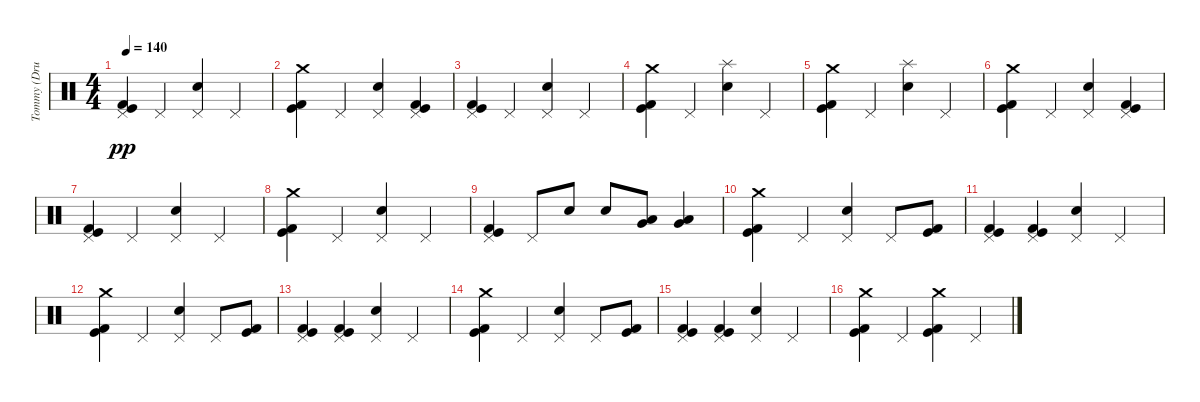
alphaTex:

\track ("Tommy (Drums)" "Tommy (Dru") {instrument percussion}
\staff {score}
\articulation defaults
\ts (4 4)
\tempo 140
\clef neutral
\ks c
("Pedal Hi-Hat (hit)" "Kick (hit) 2" "Kick (hit)").4{dy pp} "Pedal Hi-Hat (hit)".4 ("Pedal Hi-Hat (hit)" "Snare (hit) 2").4 "Pedal Hi-Hat (hit)".4 |
("Kick (hit) 2" "Kick (hit)" "Crash medium (hit)").4 "Pedal Hi-Hat (hit)".4 ("Pedal Hi-Hat (hit)" "Snare (hit) 2").4 ("Kick (hit)" "Kick (hit) 2" "Pedal Hi-Hat (hit)").4 |
("Pedal Hi-Hat (hit)" "Kick (hit) 2" "Kick (hit)").4 "Pedal Hi-Hat (hit)".4 ("Pedal Hi-Hat (hit)" "Snare (hit) 2").4 "Pedal Hi-Hat (hit)".4 |
("Kick (hit) 2" "Kick (hit)" "Crash medium (hit)").4 "Pedal Hi-Hat (hit)".4 ("Splash (hit)" "Snare (hit) 2").4 "Pedal Hi-Hat (hit)".4 |
("Crash medium (hit)" "Kick (hit) 2" "Kick (hit)").4 "Pedal Hi-Hat (hit)".4 ("Splash (hit)" "Snare (hit) 2").4 "Pedal Hi-Hat (hit)".4 |
("Kick (hit) 2" "Kick (hit)" "Crash medium (hit)").4 "Pedal Hi-Hat (hit)".4 ("Pedal Hi-Hat (hit)" "Snare (hit) 2").4 ("Kick (hit)" "Kick (hit) 2" "Pedal Hi-Hat (hit)").4 |
("Pedal Hi-Hat (hit)" "Kick (hit) 2" "Kick (hit)").4 "Pedal Hi-Hat (hit)".4 ("Pedal Hi-Hat (hit)" "Snare (hit) 2").4 "Pedal Hi-Hat (hit)".4 |
("Kick (hit) 2" "Kick (hit)" "Crash medium (hit)").4 "Pedal Hi-Hat (hit)".4 ("Pedal Hi-Hat (hit)" "Snare (hit) 2").4 "Pedal Hi-Hat (hit)".4 |
("Pedal Hi-Hat (hit)" "Kick (hit) 2" "Kick (hit)").4 "Pedal Hi-Hat (hit)".8 "Snare (hit) 2".8 "Snare (hit) 2".8 ("Very Low Tom (hit)" "Low Tom (hit)").8 ("Very Low Tom (hit)" "Low Tom (hit)").4 |
("Kick (hit)" "Crash medium (hit)" "Kick (hit) 2").4 "Pedal Hi-Hat (hit)".4 ("Pedal Hi-Hat (hit)" "Snare (hit) 2").4 "Pedal Hi-Hat (hit)".8 ("Kick (hit)" "Kick (hit) 2").8 |
("Pedal Hi-Hat (hit)" "Kick (hit)" "Kick (hit) 2").4 ("Pedal Hi-Hat (hit)" "Kick (hit)" "Kick (hit) 2").4 ("Snare (hit) 2" "Pedal Hi-Hat (hit)").4 "Pedal Hi-Hat (hit)".4 |
("Kick (hit)" "Crash medium (hit)" "Kick (hit) 2").4 "Pedal Hi-Hat (hit)".4 ("Pedal Hi-Hat (hit)" "Snare (hit) 2").4 "Pedal Hi-Hat (hit)".8 ("Kick (hit)" "Kick (hit) 2").8 |
("Pedal Hi-Hat (hit)" "Kick (hit)" "Kick (hit) 2").4 ("Pedal Hi-Hat (hit)" "Kick (hit)" "Kick (hit) 2").4 ("Snare (hit) 2" "Pedal Hi-Hat (hit)").4 "Pedal Hi-Hat (hit)".4 |
("Kick (hit)" "Crash medium (hit)" "Kick (hit) 2").4 "Pedal Hi-Hat (hit)".4 ("Pedal Hi-Hat (hit)" "Snare (hit) 2").4 "Pedal Hi-Hat (hit)".8 ("Kick (hit)" "Kick (hit) 2").8 |
("Pedal Hi-Hat (hit)" "Kick (hit)" "Kick (hit) 2").4 ("Pedal Hi-Hat (hit)" "Kick (hit)" "Kick (hit) 2").4 ("Snare (hit) 2" "Pedal Hi-Hat (hit)").4 "Pedal Hi-Hat (hit)".4 |
("Crash medium (hit)" "Kick (hit)" "Kick (hit) 2").4 "Pedal Hi-Hat (hit)".4 ("Crash medium (hit)" "Kick (hit) 2" "Kick (hit)").4 "Pedal Hi-Hat (hit)".4
